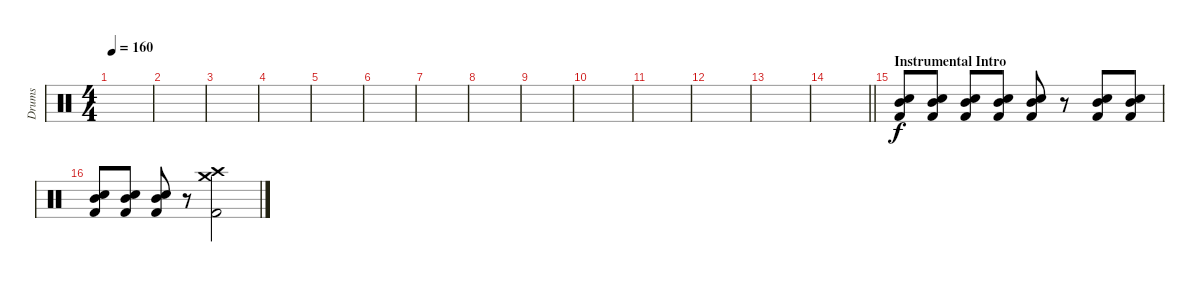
\track ("Drums" "Drums") {instrument percussion}
\staff {score}
\articulation defaults
\ts (4 4)
\tempo 160
\clef neutral
\ks c
|
|
|
|
|
|
|
|
|
|
|
|
|
\barLineRight lightlight
|
\section ("" "Instrumental Intro")
("Kick (hit) 2" "Electric Snare (hit)" "Mid Tom (hit)").8 ("Kick (hit) 2" "Electric Snare (hit)" "Mid Tom (hit)").8 ("Kick (hit) 2" "Electric Snare (hit)" "Mid Tom (hit)").8 ("Kick (hit) 2" "Electric Snare (hit)" "Mid Tom (hit)").8 ("Kick (hit) 2" "Electric Snare (hit)" "Mid Tom (hit)").8 r.8 ("Kick (hit) 2" "Electric Snare (hit)" "Mid Tom (hit)").8 ("Kick (hit) 2" "Electric Snare (hit)" "Mid Tom (hit)").8 |
("Kick (hit) 2" "Electric Snare (hit)" "Mid Tom (hit)").8 ("Kick (hit) 2" "Electric Snare (hit)" "Mid Tom (hit)").8 ("Kick (hit) 2" "Electric Snare (hit)" "Mid Tom (hit)").8 r.8 ("Kick (hit) 2" "Crash high (hit)" "Crash medium (hit)").2
